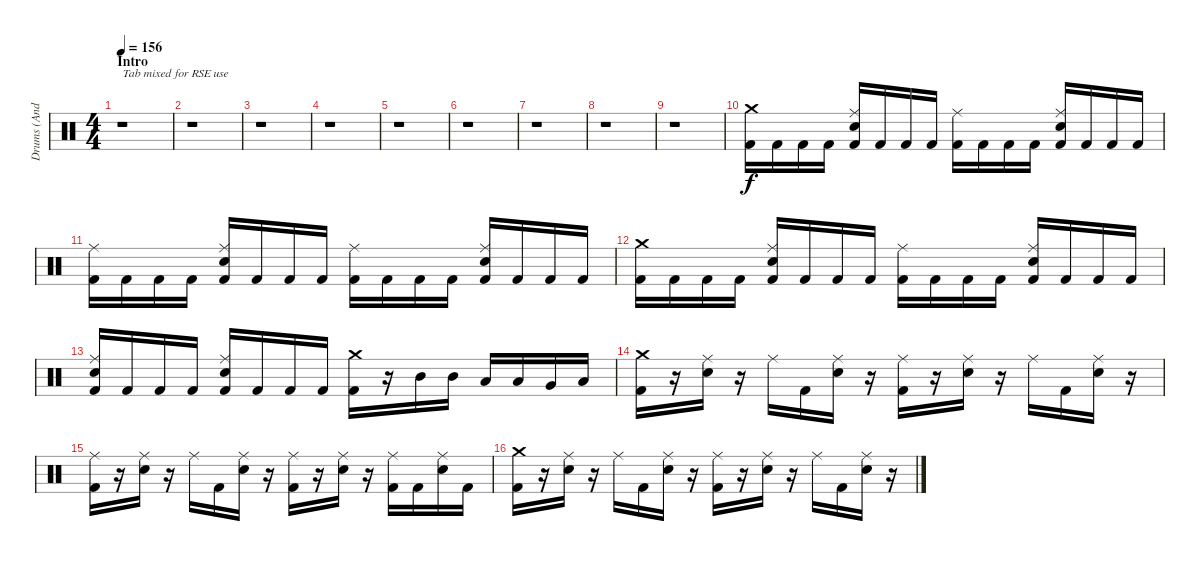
\track ("Drums (Andy C)" "Drums (And") {instrument percussion}
\staff
\articulation defaults
\ts (4 4)
\section ("" "Intro")
\tempo 156
\clef neutral
\ks c
r.1{txt "Tab mixed for RSE use" dy f} |
r.1 |
r.1 |
r.1 |
r.1 |
r.1 |
r.1 |
r.1 |
r.1 |
("Crash medium (hit)" "Kick (hit) 2").16 "Kick (hit) 2".16 "Kick (hit) 2".16 "Kick (hit) 2".16 ("Ride (middle)" "Kick (hit) 2" "Electric Snare (hit)").16 "Kick (hit) 2".16 "Kick (hit) 2".16 "Kick (hit) 2".16 ("Ride (middle)" "Kick (hit) 2").16 "Kick (hit) 2".16 "Kick (hit) 2".16 "Kick (hit) 2".16 ("Ride (middle)" "Kick (hit) 2" "Electric Snare (hit)").16 "Kick (hit) 2".16 "Kick (hit) 2".16 "Kick (hit) 2".16 |
("Ride (middle)" "Kick (hit) 2").16 "Kick (hit) 2".16 "Kick (hit) 2".16 "Kick (hit) 2".16 ("Ride (middle)" "Kick (hit) 2" "Electric Snare (hit)").16 "Kick (hit) 2".16 "Kick (hit) 2".16 "Kick (hit) 2".16 ("Ride (middle)" "Kick (hit) 2").16 "Kick (hit) 2".16 "Kick (hit) 2".16 "Kick (hit) 2".16 ("Ride (middle)" "Kick (hit) 2" "Electric Snare (hit)").16 "Kick (hit) 2".16 "Kick (hit) 2".16 "Kick (hit) 2".16 |
("Crash medium (hit)" "Kick (hit) 2").16 "Kick (hit) 2".16 "Kick (hit) 2".16 "Kick (hit) 2".16 ("Ride (middle)" "Kick (hit) 2" "Electric Snare (hit)").16 "Kick (hit) 2".16 "Kick (hit) 2".16 "Kick (hit) 2".16 ("Ride (middle)" "Kick (hit) 2").16 "Kick (hit) 2".16 "Kick (hit) 2".16 "Kick (hit) 2".16 ("Ride (middle)" "Kick (hit) 2" "Electric Snare (hit)").16 "Kick (hit) 2".16 "Kick (hit) 2".16 "Kick (hit) 2".16 |
("Ride (middle)" "Kick (hit) 2" "Electric Snare (hit)").16 "Kick (hit) 2".16 "Kick (hit) 2".16 "Kick (hit) 2".16 ("Ride (middle)" "Kick (hit) 2" "Electric Snare (hit)").16 "Kick (hit) 2".16 "Kick (hit) 2".16 "Kick (hit) 2".16 ("Crash medium (hit)" "Kick (hit) 2").16 r.16 "Mid Tom (hit)".16 "Mid Tom (hit)".16 "Low Tom (hit)".16 "Low Tom (hit)".16 "Very Low Tom (hit)".16 "Low Floor Tom (hit)".16 |
("Crash medium (hit)" "Kick (hit) 2").16 r.16 ("Ride (middle)" "Electric Snare (hit)").16 r.16 "Ride (middle)".16 "Kick (hit) 2".16 ("Ride (middle)" "Electric Snare (hit)").16 r.16 ("Ride (middle)" "Kick (hit) 2").16 r.16 ("Ride (middle)" "Electric Snare (hit)").16 r.16 "Ride (middle)".16 "Kick (hit) 2".16 ("Ride (middle)" "Electric Snare (hit)").16 r.16 |
("Ride (middle)" "Kick (hit) 2").16 r.16 ("Ride (middle)" "Electric Snare (hit)").16 r.16 "Ride (middle)".16 "Kick (hit) 2".16 ("Ride (middle)" "Electric Snare (hit)").16 r.16 ("Ride (middle)" "Kick (hit) 2").16 r.16 ("Ride (middle)" "Electric Snare (hit)").16 r.16 ("Ride (middle)" "Kick (hit) 2").16 "Kick (hit) 2".16 ("Ride (middle)" "Electric Snare (hit)").16 "Kick (hit) 2".16 |
("Crash medium (hit)" "Kick (hit) 2").16 r.16 ("Ride (middle)" "Electric Snare (hit)").16 r.16 "Ride (middle)".16 "Kick (hit) 2".16 ("Ride (middle)" "Electric Snare (hit)").16 r.16 ("Ride (middle)" "Kick (hit) 2").16 r.16 ("Ride (middle)" "Electric Snare (hit)").16 r.16 "Ride (middle)".16 "Kick (hit) 2".16 ("Ride (middle)" "Electric Snare (hit)").16 r.16
